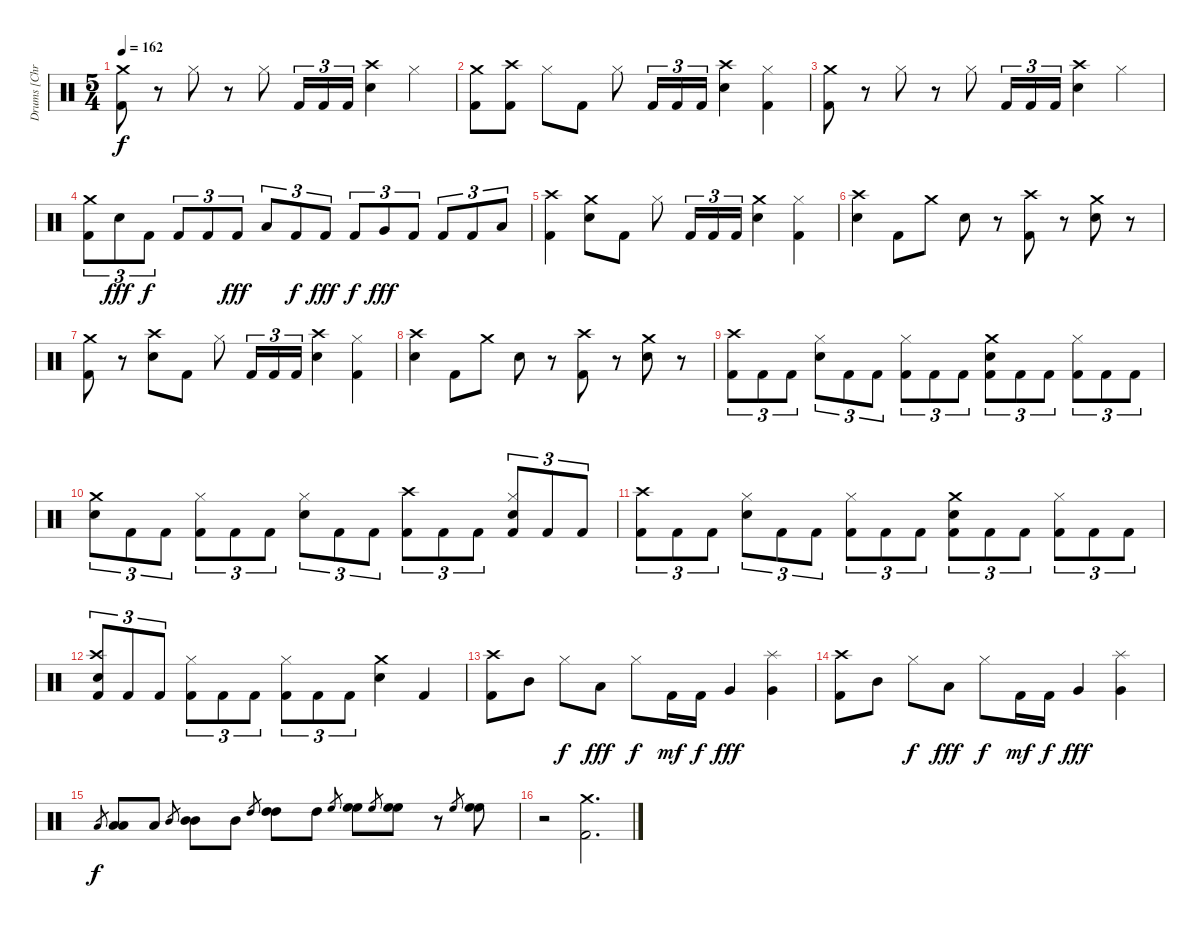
\track ("Drums [Chris Maitland]" "Drums [Chr") {instrument percussion}
\staff {score}
\articulation defaults
\ts (5 4)
\tempo 162
\clef neutral
\ks c
("Crash medium (hit)" "Kick (hit) 2").8{dy f} r.8 "Hi-Hat (closed)".8 r.8 "Hi-Hat (closed)".8 "Kick (hit) 2".16{tu (3 2)} "Kick (hit) 2".16{tu (3 2)} "Kick (hit) 2".16{tu (3 2)} ("Crash high (hit)" "Electric Snare (hit)").4 "Hi-Hat (closed)".4 |
("Crash medium (hit)" "Kick (hit) 2").8 ("Crash high (hit)" "Kick (hit) 2").8 "Hi-Hat (closed)".8 "Kick (hit) 2".8 "Hi-Hat (closed)".8 "Kick (hit) 2".16{tu (3 2)} "Kick (hit) 2".16{tu (3 2)} "Kick (hit) 2".16{tu (3 2)} ("Crash high (hit)" "Electric Snare (hit)").4 ("Hi-Hat (closed)" "Kick (hit) 2").4 |
("Crash medium (hit)" "Kick (hit) 2").8 r.8 "Hi-Hat (closed)".8 r.8 "Hi-Hat (closed)".8 "Kick (hit) 2".16{tu (3 2)} "Kick (hit) 2".16{tu (3 2)} "Kick (hit) 2".16{tu (3 2)} ("Crash high (hit)" "Electric Snare (hit)").4 "Hi-Hat (closed)".4 |
("Crash medium (hit)" "Kick (hit) 2").8{tu (3 2)} "Electric Snare (hit)".8{tu (3 2) dy fff} "Kick (hit) 2".8{tu (3 2) dy f} "Kick (hit) 2".8{tu (3 2)} "Kick (hit) 2".8{tu (3 2)} "Kick (hit) 2".8{tu (3 2) dy fff} "Low Tom (hit)".8{tu (3 2)} "Kick (hit) 2".8{tu (3 2) dy f} "Kick (hit) 2".8{tu (3 2) dy fff} "Kick (hit) 2".8{tu (3 2) dy f} "Very Low Tom (hit)".8{tu (3 2) dy fff} "Kick (hit) 2".8{tu (3 2)} "Kick (hit) 2".8{tu (3 2)} "Kick (hit) 2".8{tu (3 2)} "Low Floor Tom (hit)".8{tu (3 2)} |
("Crash high (hit)" "Kick (hit) 2").4 ("Crash medium (hit)" "Electric Snare (hit)").8 "Kick (hit) 2".8 "Hi-Hat (closed)".8 "Kick (hit) 2".16{tu (3 2)} "Kick (hit) 2".16{tu (3 2)} "Kick (hit) 2".16{tu (3 2)} ("Crash medium (hit)" "Electric Snare (hit)").4 ("Hi-Hat (closed)" "Kick (hit) 2").4 |
("Crash high (hit)" "Electric Snare (hit)").4 "Kick (hit) 2".8 "Crash medium (hit)".8 "Electric Snare (hit)".8 r.8 ("Crash high (hit)" "Kick (hit) 2").8 r.8 ("Crash medium (hit)" "Electric Snare (hit)").8 r.8 |
("Crash medium (hit)" "Kick (hit) 2").8 r.8 ("Crash high (hit)" "Electric Snare (hit)").8 "Kick (hit) 2".8 "Hi-Hat (closed)".8 "Kick (hit) 2".16{tu (3 2)} "Kick (hit) 2".16{tu (3 2)} "Kick (hit) 2".16{tu (3 2)} ("Crash high (hit)" "Electric Snare (hit)").4 ("Hi-Hat (closed)" "Kick (hit) 2").4 |
("Crash high (hit)" "Electric Snare (hit)").4 "Kick (hit) 2".8 "Crash medium (hit)".8 "Electric Snare (hit)".8 r.8 ("Crash high (hit)" "Kick (hit) 2").8 r.8 ("Crash medium (hit)" "Electric Snare (hit)").8 r.8 |
("Crash high (hit)" "Kick (hit) 2").8{tu (3 2)} "Kick (hit) 2".8{tu (3 2)} "Kick (hit) 2".8{tu (3 2)} ("Hi-Hat (closed)" "Electric Snare (hit)").8{tu (3 2)} "Kick (hit) 2".8{tu (3 2)} "Kick (hit) 2".8{tu (3 2)} ("Hi-Hat (closed)" "Kick (hit) 2").8{tu (3 2)} "Kick (hit) 2".8{tu (3 2)} "Kick (hit) 2".8{tu (3 2)} ("Crash medium (hit)" "Electric Snare (hit)" "Kick (hit) 2").8{tu (3 2)} "Kick (hit) 2".8{tu (3 2)} "Kick (hit) 2".8{tu (3 2)} ("Hi-Hat (closed)" "Kick (hit) 2").8{tu (3 2)} "Kick (hit) 2".8{tu (3 2)} "Kick (hit) 2".8{tu (3 2)} |
("Crash medium (hit)" "Electric Snare (hit)").8{tu (3 2)} "Kick (hit) 2".8{tu (3 2)} "Kick (hit) 2".8{tu (3 2)} ("Hi-Hat (closed)" "Kick (hit) 2").8{tu (3 2)} "Kick (hit) 2".8{tu (3 2)} "Kick (hit) 2".8{tu (3 2)} ("Hi-Hat (closed)" "Electric Snare (hit)").8{tu (3 2)} "Kick (hit) 2".8{tu (3 2)} "Kick (hit) 2".8{tu (3 2)} ("Crash high (hit)" "Kick (hit) 2").8{tu (3 2)} "Kick (hit) 2".8{tu (3 2)} "Kick (hit) 2".8{tu (3 2)} ("Hi-Hat (closed)" "Electric Snare (hit)" "Kick (hit) 2").8{tu (3 2)} "Kick (hit) 2".8{tu (3 2)} "Kick (hit) 2".8{tu (3 2)} |
("Crash high (hit)" "Kick (hit) 2").8{tu (3 2)} "Kick (hit) 2".8{tu (3 2)} "Kick (hit) 2".8{tu (3 2)} ("Hi-Hat (closed)" "Electric Snare (hit)").8{tu (3 2)} "Kick (hit) 2".8{tu (3 2)} "Kick (hit) 2".8{tu (3 2)} ("Hi-Hat (closed)" "Kick (hit) 2").8{tu (3 2)} "Kick (hit) 2".8{tu (3 2)} "Kick (hit) 2".8{tu (3 2)} ("Crash medium (hit)" "Electric Snare (hit)" "Kick (hit) 2").8{tu (3 2)} "Kick (hit) 2".8{tu (3 2)} "Kick (hit) 2".8{tu (3 2)} ("Hi-Hat (closed)" "Kick (hit) 2").8{tu (3 2)} "Kick (hit) 2".8{tu (3 2)} "Kick (hit) 2".8{tu (3 2)} |
("Crash high (hit)" "Electric Snare (hit)" "Kick (hit) 2").8{tu (3 2)} "Kick (hit) 2".8{tu (3 2)} "Kick (hit) 2".8{tu (3 2)} ("Hi-Hat (closed)" "Kick (hit) 2").8{tu (3 2)} "Kick (hit) 2".8{tu (3 2)} "Kick (hit) 2".8{tu (3 2)} ("Hi-Hat (closed)" "Kick (hit) 2").8{tu (3 2)} "Kick (hit) 2".8{tu (3 2)} "Kick (hit) 2".8{tu (3 2)} ("Crash medium (hit)" "Electric Snare (hit)").4 "Kick (hit) 2".4 |
("Crash high (hit)" "Kick (hit) 2").8 "Mid Tom (hit)".8 "Hi-Hat (closed)".8{dy f} "Low Tom (hit)".8{dy fff} "Hi-Hat (closed)".8{dy f} "Kick (hit) 2".16{dy mf} "Kick (hit) 2".16{dy f} "Very Low Tom (hit)".4{dy fff} ("Splash (hit)" "Very Low Tom (hit)").4 |
("Crash high (hit)" "Kick (hit) 2").8 "Mid Tom (hit)".8 "Hi-Hat (closed)".8{dy f} "Low Tom (hit)".8{dy fff} "Hi-Hat (closed)".8{dy f} "Kick (hit) 2".16{dy mf} "Kick (hit) 2".16{dy f} "Very Low Tom (hit)".4{dy fff} ("Splash (hit)" "Very Low Tom (hit)").4 |
"Low Tom (hit)".8{gr dy f} ("Low Tom (hit)" "Low Tom (hit)").8 "Low Tom (hit)".8 "Mid Tom (hit)".8{gr} ("Mid Tom (hit)" "Mid Tom (hit)").8 "Mid Tom (hit)".8 "High Tom (hit)".8{gr} ("High Tom (hit)" "High Tom (hit)").8 "High Tom (hit)".8 "High Floor Tom (hit)".8{gr} ("High Floor Tom (hit)" "High Floor Tom (hit)").8 "High Floor Tom (hit)".8{gr} ("High Floor Tom (hit)" "High Floor Tom (hit)").8 r.8 "High Floor Tom (hit)".8{gr} ("High Floor Tom (hit)" "High Floor Tom (hit)").8 |
r.2 ("Crash medium (hit)" "Kick (hit) 2").2{d}
